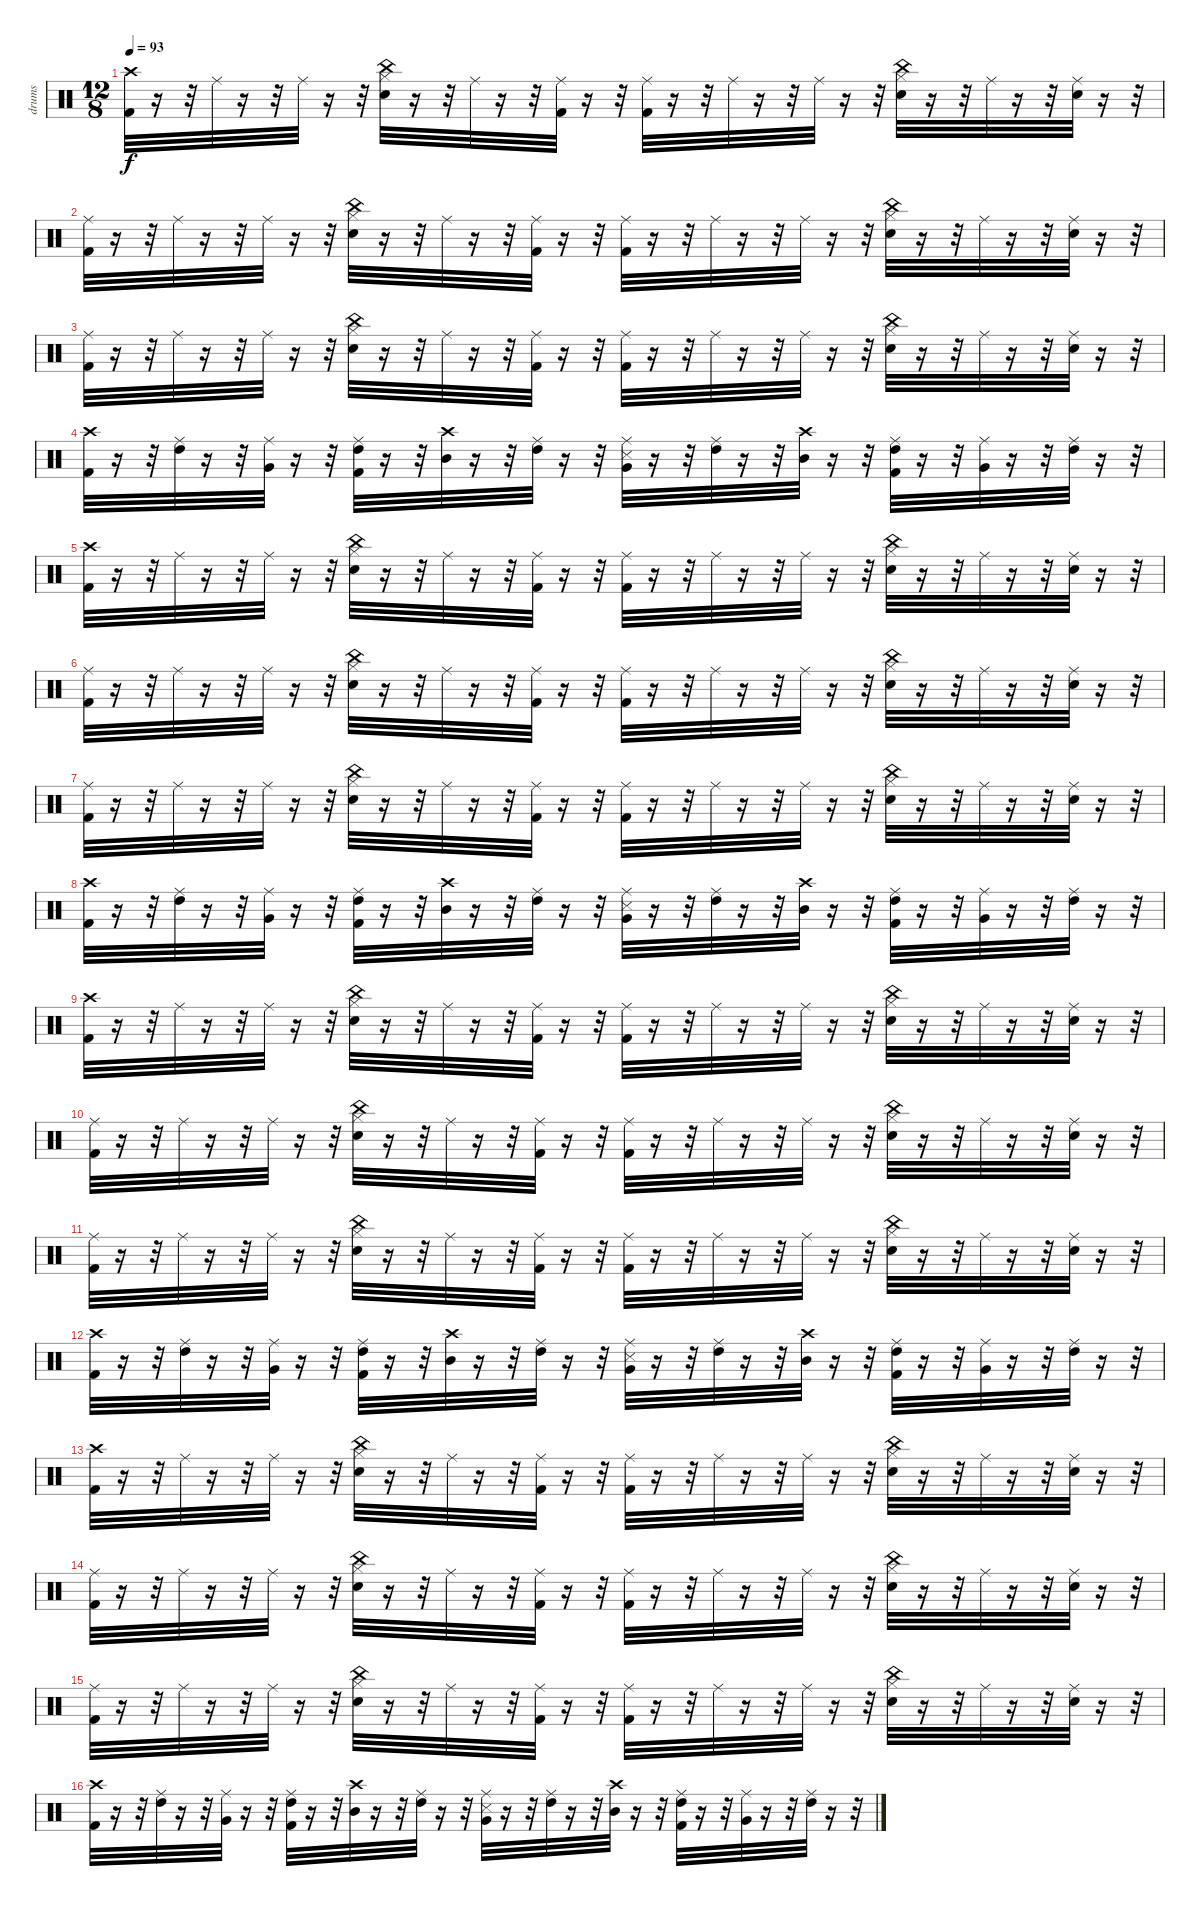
\track ("drums" "drums") {instrument percussion}
\staff {score}
\articulation defaults
\ts (12 8)
\tempo 93
\clef neutral
\ks c
("Kick (hit) 2" "Crash high (hit)").32{dy f} r.16 r.32 "Ride (middle)".32 r.16 r.32 "Ride (middle)".32 r.16 r.32 ("China (hit)" "Hi-Hat (closed)" "Snare (hit) 2").32 r.16 r.32 "Ride (middle)".32 r.16 r.32 ("Ride (middle)" "Kick (hit) 2").32 r.16 r.32 ("Kick (hit) 2" "Ride (middle)").32 r.16 r.32 "Ride (middle)".32 r.16 r.32 "Ride (middle)".32 r.16 r.32 ("China (hit)" "Hi-Hat (closed)" "Snare (hit) 2").32 r.16 r.32 "Ride (middle)".32 r.16 r.32 ("Ride (middle)" "Snare (hit) 2").32 r.16 r.32 |
("Kick (hit) 2" "Ride (middle)").32 r.16 r.32 "Ride (middle)".32 r.16 r.32 "Ride (middle)".32 r.16 r.32 ("China (hit)" "Hi-Hat (closed)" "Snare (hit) 2").32 r.16 r.32 "Ride (middle)".32 r.16 r.32 ("Ride (middle)" "Kick (hit) 2").32 r.16 r.32 ("Kick (hit) 2" "Ride (middle)").32 r.16 r.32 "Ride (middle)".32 r.16 r.32 "Ride (middle)".32 r.16 r.32 ("China (hit)" "Hi-Hat (closed)" "Snare (hit) 2").32 r.16 r.32 "Ride (middle)".32 r.16 r.32 ("Ride (middle)" "Snare (hit) 2").32 r.16 r.32 |
("Kick (hit) 2" "Ride (middle)").32 r.16 r.32 "Ride (middle)".32 r.16 r.32 "Ride (middle)".32 r.16 r.32 ("China (hit)" "Hi-Hat (closed)" "Snare (hit) 2").32 r.16 r.32 "Ride (middle)".32 r.16 r.32 ("Ride (middle)" "Kick (hit) 2").32 r.16 r.32 ("Kick (hit) 2" "Ride (middle)").32 r.16 r.32 "Ride (middle)".32 r.16 r.32 "Ride (middle)".32 r.16 r.32 ("China (hit)" "Hi-Hat (closed)" "Snare (hit) 2").32 r.16 r.32 "Ride (middle)".32 r.16 r.32 ("Ride (middle)" "Snare (hit) 2").32 r.16 r.32 |
("Kick (hit) 2" "Crash high (hit)").32 r.16 r.32 ("Ride (middle)" "High Tom (hit)").32 r.16 r.32 ("Very Low Tom (hit)" "Ride (middle)").32 r.16 r.32 ("Ride (middle)" "Kick (hit) 2" "High Tom (hit)").32 r.16 r.32 ("Mid Tom (hit)" "Crash high (hit)").32 r.16 r.32 ("Ride (middle)" "High Tom (hit)").32 r.16 r.32 ("Very Low Tom (hit)" "Snare (side stick) 3" "Ride (middle)").32 r.16 r.32 ("Ride (middle)" "High Tom (hit)").32 r.16 r.32 ("Mid Tom (hit)" "Crash high (hit)").32 r.16 r.32 ("Ride (middle)" "Kick (hit) 2" "High Tom (hit)").32 r.16 r.32 ("Very Low Tom (hit)" "Ride (middle)").32 r.16 r.32 ("Ride (middle)" "High Tom (hit)").32 r.16 r.32 |
("Kick (hit) 2" "Crash high (hit)").32 r.16 r.32 "Ride (middle)".32 r.16 r.32 "Ride (middle)".32 r.16 r.32 ("China (hit)" "Hi-Hat (closed)" "Snare (hit) 2").32 r.16 r.32 "Ride (middle)".32 r.16 r.32 ("Ride (middle)" "Kick (hit) 2").32 r.16 r.32 ("Kick (hit) 2" "Ride (middle)").32 r.16 r.32 "Ride (middle)".32 r.16 r.32 "Ride (middle)".32 r.16 r.32 ("China (hit)" "Hi-Hat (closed)" "Snare (hit) 2").32 r.16 r.32 "Ride (middle)".32 r.16 r.32 ("Ride (middle)" "Snare (hit) 2").32 r.16 r.32 |
("Kick (hit) 2" "Ride (middle)").32 r.16 r.32 "Ride (middle)".32 r.16 r.32 "Ride (middle)".32 r.16 r.32 ("China (hit)" "Hi-Hat (closed)" "Snare (hit) 2").32 r.16 r.32 "Ride (middle)".32 r.16 r.32 ("Ride (middle)" "Kick (hit) 2").32 r.16 r.32 ("Kick (hit) 2" "Ride (middle)").32 r.16 r.32 "Ride (middle)".32 r.16 r.32 "Ride (middle)".32 r.16 r.32 ("China (hit)" "Hi-Hat (closed)" "Snare (hit) 2").32 r.16 r.32 "Ride (middle)".32 r.16 r.32 ("Ride (middle)" "Snare (hit) 2").32 r.16 r.32 |
("Kick (hit) 2" "Ride (middle)").32 r.16 r.32 "Ride (middle)".32 r.16 r.32 "Ride (middle)".32 r.16 r.32 ("China (hit)" "Hi-Hat (closed)" "Snare (hit) 2").32 r.16 r.32 "Ride (middle)".32 r.16 r.32 ("Ride (middle)" "Kick (hit) 2").32 r.16 r.32 ("Kick (hit) 2" "Ride (middle)").32 r.16 r.32 "Ride (middle)".32 r.16 r.32 "Ride (middle)".32 r.16 r.32 ("China (hit)" "Hi-Hat (closed)" "Snare (hit) 2").32 r.16 r.32 "Ride (middle)".32 r.16 r.32 ("Ride (middle)" "Snare (hit) 2").32 r.16 r.32 |
("Kick (hit) 2" "Crash high (hit)").32 r.16 r.32 ("Ride (middle)" "High Tom (hit)").32 r.16 r.32 ("Very Low Tom (hit)" "Ride (middle)").32 r.16 r.32 ("Ride (middle)" "Kick (hit) 2" "High Tom (hit)").32 r.16 r.32 ("Mid Tom (hit)" "Crash high (hit)").32 r.16 r.32 ("Ride (middle)" "High Tom (hit)").32 r.16 r.32 ("Very Low Tom (hit)" "Snare (side stick) 3" "Ride (middle)").32 r.16 r.32 ("Ride (middle)" "High Tom (hit)").32 r.16 r.32 ("Mid Tom (hit)" "Crash high (hit)").32 r.16 r.32 ("Ride (middle)" "Kick (hit) 2" "High Tom (hit)").32 r.16 r.32 ("Very Low Tom (hit)" "Ride (middle)").32 r.16 r.32 ("Ride (middle)" "High Tom (hit)").32 r.16 r.32 |
("Kick (hit) 2" "Crash high (hit)").32 r.16 r.32 "Ride (middle)".32 r.16 r.32 "Ride (middle)".32 r.16 r.32 ("China (hit)" "Hi-Hat (closed)" "Snare (hit) 2").32 r.16 r.32 "Ride (middle)".32 r.16 r.32 ("Ride (middle)" "Kick (hit) 2").32 r.16 r.32 ("Kick (hit) 2" "Ride (middle)").32 r.16 r.32 "Ride (middle)".32 r.16 r.32 "Ride (middle)".32 r.16 r.32 ("China (hit)" "Hi-Hat (closed)" "Snare (hit) 2").32 r.16 r.32 "Ride (middle)".32 r.16 r.32 ("Ride (middle)" "Snare (hit) 2").32 r.16 r.32 |
("Kick (hit) 2" "Ride (middle)").32 r.16 r.32 "Ride (middle)".32 r.16 r.32 "Ride (middle)".32 r.16 r.32 ("China (hit)" "Hi-Hat (closed)" "Snare (hit) 2").32 r.16 r.32 "Ride (middle)".32 r.16 r.32 ("Ride (middle)" "Kick (hit) 2").32 r.16 r.32 ("Kick (hit) 2" "Ride (middle)").32 r.16 r.32 "Ride (middle)".32 r.16 r.32 "Ride (middle)".32 r.16 r.32 ("China (hit)" "Hi-Hat (closed)" "Snare (hit) 2").32 r.16 r.32 "Ride (middle)".32 r.16 r.32 ("Ride (middle)" "Snare (hit) 2").32 r.16 r.32 |
("Kick (hit) 2" "Ride (middle)").32 r.16 r.32 "Ride (middle)".32 r.16 r.32 "Ride (middle)".32 r.16 r.32 ("China (hit)" "Hi-Hat (closed)" "Snare (hit) 2").32 r.16 r.32 "Ride (middle)".32 r.16 r.32 ("Ride (middle)" "Kick (hit) 2").32 r.16 r.32 ("Kick (hit) 2" "Ride (middle)").32 r.16 r.32 "Ride (middle)".32 r.16 r.32 "Ride (middle)".32 r.16 r.32 ("China (hit)" "Hi-Hat (closed)" "Snare (hit) 2").32 r.16 r.32 "Ride (middle)".32 r.16 r.32 ("Ride (middle)" "Snare (hit) 2").32 r.16 r.32 |
("Kick (hit) 2" "Crash high (hit)").32 r.16 r.32 ("Ride (middle)" "High Tom (hit)").32 r.16 r.32 ("Very Low Tom (hit)" "Ride (middle)").32 r.16 r.32 ("Ride (middle)" "Kick (hit) 2" "High Tom (hit)").32 r.16 r.32 ("Mid Tom (hit)" "Crash high (hit)").32 r.16 r.32 ("Ride (middle)" "High Tom (hit)").32 r.16 r.32 ("Very Low Tom (hit)" "Snare (side stick) 3" "Ride (middle)").32 r.16 r.32 ("Ride (middle)" "High Tom (hit)").32 r.16 r.32 ("Mid Tom (hit)" "Crash high (hit)").32 r.16 r.32 ("Ride (middle)" "Kick (hit) 2" "High Tom (hit)").32 r.16 r.32 ("Very Low Tom (hit)" "Ride (middle)").32 r.16 r.32 ("Ride (middle)" "High Tom (hit)").32 r.16 r.32 |
("Kick (hit) 2" "Crash high (hit)").32 r.16 r.32 "Ride (middle)".32 r.16 r.32 "Ride (middle)".32 r.16 r.32 ("China (hit)" "Hi-Hat (closed)" "Snare (hit) 2").32 r.16 r.32 "Ride (middle)".32 r.16 r.32 ("Ride (middle)" "Kick (hit) 2").32 r.16 r.32 ("Kick (hit) 2" "Ride (middle)").32 r.16 r.32 "Ride (middle)".32 r.16 r.32 "Ride (middle)".32 r.16 r.32 ("China (hit)" "Hi-Hat (closed)" "Snare (hit) 2").32 r.16 r.32 "Ride (middle)".32 r.16 r.32 ("Ride (middle)" "Snare (hit) 2").32 r.16 r.32 |
("Kick (hit) 2" "Ride (middle)").32 r.16 r.32 "Ride (middle)".32 r.16 r.32 "Ride (middle)".32 r.16 r.32 ("China (hit)" "Hi-Hat (closed)" "Snare (hit) 2").32 r.16 r.32 "Ride (middle)".32 r.16 r.32 ("Ride (middle)" "Kick (hit) 2").32 r.16 r.32 ("Kick (hit) 2" "Ride (middle)").32 r.16 r.32 "Ride (middle)".32 r.16 r.32 "Ride (middle)".32 r.16 r.32 ("China (hit)" "Hi-Hat (closed)" "Snare (hit) 2").32 r.16 r.32 "Ride (middle)".32 r.16 r.32 ("Ride (middle)" "Snare (hit) 2").32 r.16 r.32 |
("Kick (hit) 2" "Ride (middle)").32 r.16 r.32 "Ride (middle)".32 r.16 r.32 "Ride (middle)".32 r.16 r.32 ("China (hit)" "Hi-Hat (closed)" "Snare (hit) 2").32 r.16 r.32 "Ride (middle)".32 r.16 r.32 ("Ride (middle)" "Kick (hit) 2").32 r.16 r.32 ("Kick (hit) 2" "Ride (middle)").32 r.16 r.32 "Ride (middle)".32 r.16 r.32 "Ride (middle)".32 r.16 r.32 ("China (hit)" "Hi-Hat (closed)" "Snare (hit) 2").32 r.16 r.32 "Ride (middle)".32 r.16 r.32 ("Ride (middle)" "Snare (hit) 2").32 r.16 r.32 |
("Kick (hit) 2" "Crash high (hit)").32 r.16 r.32 ("Ride (middle)" "High Tom (hit)").32 r.16 r.32 ("Very Low Tom (hit)" "Ride (middle)").32 r.16 r.32 ("Ride (middle)" "Kick (hit) 2" "High Tom (hit)").32 r.16 r.32 ("Mid Tom (hit)" "Crash high (hit)").32 r.16 r.32 ("Ride (middle)" "High Tom (hit)").32 r.16 r.32 ("Very Low Tom (hit)" "Snare (side stick) 3" "Ride (middle)").32 r.16 r.32 ("Ride (middle)" "High Tom (hit)").32 r.16 r.32 ("Mid Tom (hit)" "Crash high (hit)").32 r.16 r.32 ("Ride (middle)" "Kick (hit) 2" "High Tom (hit)").32 r.16 r.32 ("Very Low Tom (hit)" "Ride (middle)").32 r.16 r.32 ("Ride (middle)" "High Tom (hit)").32 r.16 r.32
